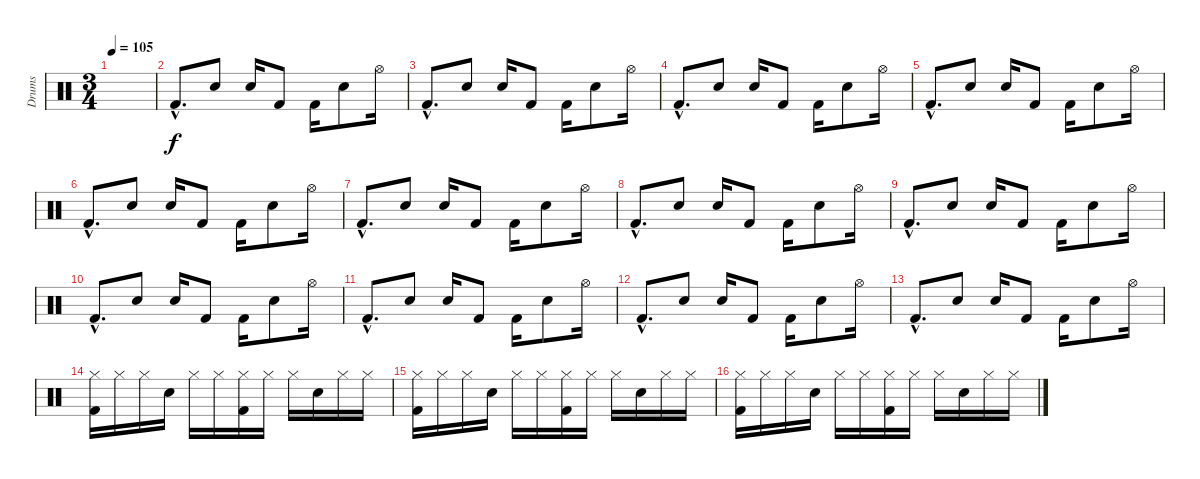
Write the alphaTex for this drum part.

\track ("Drums" "Drums") {instrument percussion}
\staff {score}
\articulation defaults
\ts (3 4)
\tempo 105
\clef neutral
\ks c
|
"Kick (hit) 2"{hac}.8{d} "Snare (hit) 2".8 "Snare (hit) 2".16 "Kick (hit) 2".8 "Kick (hit) 2".16 "Snare (hit) 2".8 "Hi-Hat (open)".16 |
"Kick (hit) 2"{hac}.8{d} "Snare (hit) 2".8 "Snare (hit) 2".16 "Kick (hit) 2".8 "Kick (hit) 2".16 "Snare (hit) 2".8 "Hi-Hat (open)".16 |
"Kick (hit) 2"{hac}.8{d} "Snare (hit) 2".8 "Snare (hit) 2".16 "Kick (hit) 2".8 "Kick (hit) 2".16 "Snare (hit) 2".8 "Hi-Hat (open)".16 |
"Kick (hit) 2"{hac}.8{d} "Snare (hit) 2".8 "Snare (hit) 2".16 "Kick (hit) 2".8 "Kick (hit) 2".16 "Snare (hit) 2".8 "Hi-Hat (open)".16 |
"Kick (hit) 2"{hac}.8{d} "Snare (hit) 2".8 "Snare (hit) 2".16 "Kick (hit) 2".8 "Kick (hit) 2".16 "Snare (hit) 2".8 "Hi-Hat (open)".16 |
"Kick (hit) 2"{hac}.8{d} "Snare (hit) 2".8 "Snare (hit) 2".16 "Kick (hit) 2".8 "Kick (hit) 2".16 "Snare (hit) 2".8 "Hi-Hat (open)".16 |
"Kick (hit) 2"{hac}.8{d} "Snare (hit) 2".8 "Snare (hit) 2".16 "Kick (hit) 2".8 "Kick (hit) 2".16 "Snare (hit) 2".8 "Hi-Hat (open)".16 |
"Kick (hit) 2"{hac}.8{d} "Snare (hit) 2".8 "Snare (hit) 2".16 "Kick (hit) 2".8 "Kick (hit) 2".16 "Snare (hit) 2".8 "Hi-Hat (open)".16 |
"Kick (hit) 2"{hac}.8{d} "Snare (hit) 2".8 "Snare (hit) 2".16 "Kick (hit) 2".8 "Kick (hit) 2".16 "Snare (hit) 2".8 "Hi-Hat (open)".16 |
"Kick (hit) 2"{hac}.8{d} "Snare (hit) 2".8 "Snare (hit) 2".16 "Kick (hit) 2".8 "Kick (hit) 2".16 "Snare (hit) 2".8 "Hi-Hat (open)".16 |
"Kick (hit) 2"{hac}.8{d} "Snare (hit) 2".8 "Snare (hit) 2".16 "Kick (hit) 2".8 "Kick (hit) 2".16 "Snare (hit) 2".8 "Hi-Hat (open)".16 |
"Kick (hit) 2"{hac}.8{d} "Snare (hit) 2".8 "Snare (hit) 2".16 "Kick (hit) 2".8 "Kick (hit) 2".16 "Snare (hit) 2".8 "Hi-Hat (open)".16 |
("Hi-Hat (closed)" "Kick (hit) 2").16 "Hi-Hat (closed)".16 "Hi-Hat (closed)".16 "Snare (hit) 2".16 "Hi-Hat (closed)".16 "Hi-Hat (closed)".16 ("Hi-Hat (closed)" "Kick (hit) 2").16 "Hi-Hat (closed)".16 "Hi-Hat (closed)".16 "Snare (hit) 2".16 "Hi-Hat (closed)".16 "Hi-Hat (closed)".16 |
("Hi-Hat (closed)" "Kick (hit) 2").16 "Hi-Hat (closed)".16 "Hi-Hat (closed)".16 "Snare (hit) 2".16 "Hi-Hat (closed)".16 "Hi-Hat (closed)".16 ("Hi-Hat (closed)" "Kick (hit) 2").16 "Hi-Hat (closed)".16 "Hi-Hat (closed)".16 "Snare (hit) 2".16 "Hi-Hat (closed)".16 "Hi-Hat (closed)".16 |
("Hi-Hat (closed)" "Kick (hit) 2").16 "Hi-Hat (closed)".16 "Hi-Hat (closed)".16 "Snare (hit) 2".16 "Hi-Hat (closed)".16 "Hi-Hat (closed)".16 ("Hi-Hat (closed)" "Kick (hit) 2").16 "Hi-Hat (closed)".16 "Hi-Hat (closed)".16 "Snare (hit) 2".16 "Hi-Hat (closed)".16 "Hi-Hat (closed)".16
